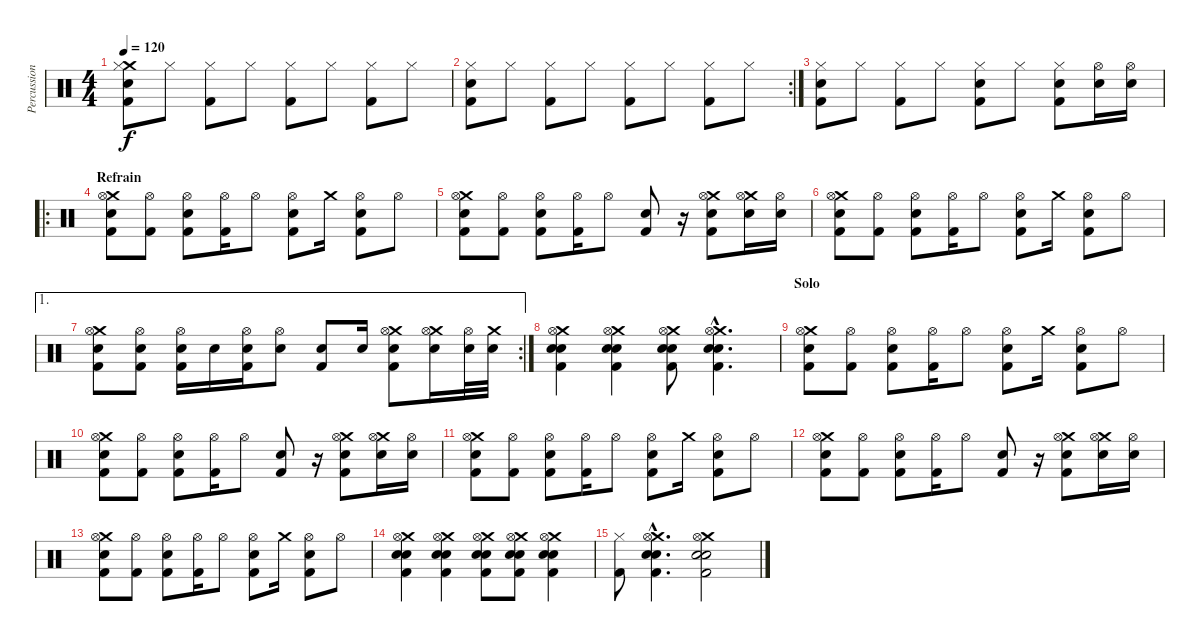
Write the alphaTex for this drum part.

\track ("Percussions" "Percussion") {instrument percussion}
\staff {score}
\articulation defaults
\ts (4 4)
\tempo 120
\clef neutral
\ks c
("Crash medium (hit)" "Hi-Hat (closed)" "Kick (hit) 2" "Electric Snare (hit)").8{dy f} "Hi-Hat (closed)".8 ("Hi-Hat (closed)" "Kick (hit) 2").8 "Hi-Hat (closed)".8 ("Hi-Hat (closed)" "Kick (hit) 2").8 "Hi-Hat (closed)".8 ("Hi-Hat (closed)" "Kick (hit) 2").8 "Hi-Hat (closed)".8 |
\rc 2
("Hi-Hat (closed)" "Kick (hit) 2" "Electric Snare (hit)").8 "Hi-Hat (closed)".8 ("Hi-Hat (closed)" "Kick (hit) 2").8 "Hi-Hat (closed)".8 ("Hi-Hat (closed)" "Kick (hit) 2").8 "Hi-Hat (closed)".8 ("Hi-Hat (closed)" "Kick (hit) 2").8 "Hi-Hat (closed)".8 |
("Hi-Hat (closed)" "Kick (hit) 2" "Electric Snare (hit)").8 "Hi-Hat (closed)".8 ("Hi-Hat (closed)" "Kick (hit) 2").8 "Hi-Hat (closed)".8 ("Hi-Hat (closed)" "Kick (hit) 2" "Electric Snare (hit)").8 "Hi-Hat (closed)".8 ("Hi-Hat (closed)" "Kick (hit) 2" "Electric Snare (hit)").8 ("Hi-Hat (open)" "Electric Snare (hit)").16 ("Hi-Hat (open)" "Electric Snare (hit)").16 |
\ro
\section ("" "Refrain")
("Crash medium (hit)" "Kick (hit) 2" "Hi-Hat (open)" "Electric Snare (hit)").8 ("Kick (hit) 2" "Hi-Hat (open)").8 ("Kick (hit) 2" "Hi-Hat (open)" "Electric Snare (hit)").8 ("Kick (hit) 2" "Hi-Hat (open)").16 "Hi-Hat (open)".8 ("Kick (hit) 2" "Hi-Hat (open)" "Electric Snare (hit)").8 "Crash medium (hit)".16 ("Kick (hit) 2" "Hi-Hat (open)" "Electric Snare (hit)").8 "Hi-Hat (open)".8 |
("Crash medium (hit)" "Kick (hit) 2" "Hi-Hat (open)" "Electric Snare (hit)").8 ("Kick (hit) 2" "Hi-Hat (open)").8 ("Kick (hit) 2" "Hi-Hat (open)" "Electric Snare (hit)").8 ("Kick (hit) 2" "Hi-Hat (open)").16 "Hi-Hat (open)".8 ("Kick (hit) 2" "Electric Snare (hit)").8 r.16 ("Crash medium (hit)" "Kick (hit) 2" "Hi-Hat (open)" "Electric Snare (hit)").8 ("Crash medium (hit)" "Hi-Hat (open)" "Electric Snare (hit)").16 ("Hi-Hat (open)" "Electric Snare (hit)").16 |
("Crash medium (hit)" "Kick (hit) 2" "Hi-Hat (open)" "Electric Snare (hit)").8 ("Kick (hit) 2" "Hi-Hat (open)").8 ("Kick (hit) 2" "Hi-Hat (open)" "Electric Snare (hit)").8 ("Kick (hit) 2" "Hi-Hat (open)").16 "Hi-Hat (open)".8 ("Kick (hit) 2" "Hi-Hat (open)" "Electric Snare (hit)").8 "Crash medium (hit)".16 ("Kick (hit) 2" "Hi-Hat (open)" "Electric Snare (hit)").8 "Hi-Hat (open)".8 |
\ae 1
\rc 2
("Crash medium (hit)" "Kick (hit) 2" "Hi-Hat (open)" "Electric Snare (hit)").8 ("Kick (hit) 2" "Hi-Hat (open)" "Electric Snare (hit)").8 ("Kick (hit) 2" "Hi-Hat (open)" "Electric Snare (hit)").16 "Electric Snare (hit)".16 ("Kick (hit) 2" "Hi-Hat (open)" "Electric Snare (hit)").16 ("Hi-Hat (open)" "Electric Snare (hit)").8 ("Kick (hit) 2" "Electric Snare (hit)").8 "Electric Snare (hit)".16 ("Crash medium (hit)" "Kick (hit) 2" "Hi-Hat (open)" "Electric Snare (hit)").8 ("Crash medium (hit)" "Hi-Hat (open)" "Electric Snare (hit)").16 ("Hi-Hat (open)" "Electric Snare (hit)").32 ("Crash medium (hit)" "Electric Snare (hit)").32 |
("Crash medium (hit)" "Kick (hit) 2" "Hi-Hat (open)" "Electric Snare (hit)" "Snare (hit) 2").4 ("Crash medium (hit)" "Kick (hit) 2" "Hi-Hat (open)" "Electric Snare (hit)" "Snare (hit) 2").4 ("Crash medium (hit)" "Kick (hit) 2" "Hi-Hat (open)" "Electric Snare (hit)" "Snare (hit) 2").8 ("Crash medium (hit)"{hac} "Kick (hit) 2"{hac} "Hi-Hat (open)"{hac} "Electric Snare (hit)"{hac} "Snare (hit) 2"{hac}).4{d} |
\section ("" "Solo")
("Crash medium (hit)" "Kick (hit) 2" "Hi-Hat (open)" "Electric Snare (hit)").8 ("Kick (hit) 2" "Hi-Hat (open)").8 ("Kick (hit) 2" "Hi-Hat (open)" "Electric Snare (hit)").8 ("Kick (hit) 2" "Hi-Hat (open)").16 "Hi-Hat (open)".8 ("Kick (hit) 2" "Hi-Hat (open)" "Electric Snare (hit)").8 "Crash medium (hit)".16 ("Kick (hit) 2" "Hi-Hat (open)" "Electric Snare (hit)").8 "Hi-Hat (open)".8 |
("Crash medium (hit)" "Kick (hit) 2" "Hi-Hat (open)" "Electric Snare (hit)").8 ("Kick (hit) 2" "Hi-Hat (open)").8 ("Kick (hit) 2" "Hi-Hat (open)" "Electric Snare (hit)").8 ("Kick (hit) 2" "Hi-Hat (open)").16 "Hi-Hat (open)".8 ("Kick (hit) 2" "Electric Snare (hit)").8 r.16 ("Crash medium (hit)" "Kick (hit) 2" "Hi-Hat (open)" "Electric Snare (hit)").8 ("Crash medium (hit)" "Hi-Hat (open)" "Electric Snare (hit)").16 ("Hi-Hat (open)" "Electric Snare (hit)").16 |
("Crash medium (hit)" "Kick (hit) 2" "Hi-Hat (open)" "Electric Snare (hit)").8 ("Kick (hit) 2" "Hi-Hat (open)").8 ("Kick (hit) 2" "Hi-Hat (open)" "Electric Snare (hit)").8 ("Kick (hit) 2" "Hi-Hat (open)").16 "Hi-Hat (open)".8 ("Kick (hit) 2" "Hi-Hat (open)" "Electric Snare (hit)").8 "Crash medium (hit)".16 ("Kick (hit) 2" "Hi-Hat (open)" "Electric Snare (hit)").8 "Hi-Hat (open)".8 |
("Crash medium (hit)" "Kick (hit) 2" "Hi-Hat (open)" "Electric Snare (hit)").8 ("Kick (hit) 2" "Hi-Hat (open)").8 ("Kick (hit) 2" "Hi-Hat (open)" "Electric Snare (hit)").8 ("Kick (hit) 2" "Hi-Hat (open)").16 "Hi-Hat (open)".8 ("Kick (hit) 2" "Electric Snare (hit)").8 r.16 ("Crash medium (hit)" "Kick (hit) 2" "Hi-Hat (open)" "Electric Snare (hit)").8 ("Crash medium (hit)" "Hi-Hat (open)" "Electric Snare (hit)").16 ("Hi-Hat (open)" "Electric Snare (hit)").16 |
("Crash medium (hit)" "Kick (hit) 2" "Hi-Hat (open)" "Electric Snare (hit)").8 ("Kick (hit) 2" "Hi-Hat (open)").8 ("Kick (hit) 2" "Hi-Hat (open)" "Electric Snare (hit)").8 ("Kick (hit) 2" "Hi-Hat (open)").16 "Hi-Hat (open)".8 ("Kick (hit) 2" "Hi-Hat (open)" "Electric Snare (hit)").8 "Crash medium (hit)".16 ("Kick (hit) 2" "Hi-Hat (open)" "Electric Snare (hit)").8 "Hi-Hat (open)".8 |
("Crash medium (hit)" "Kick (hit) 2" "Hi-Hat (open)" "Electric Snare (hit)" "Snare (hit) 2").4 ("Crash medium (hit)" "Kick (hit) 2" "Hi-Hat (open)" "Electric Snare (hit)" "Snare (hit) 2").4 ("Crash medium (hit)" "Kick (hit) 2" "Hi-Hat (open)" "Electric Snare (hit)" "Snare (hit) 2").8 ("Crash medium (hit)" "Kick (hit) 2" "Hi-Hat (open)" "Electric Snare (hit)" "Snare (hit) 2").8 ("Crash medium (hit)" "Kick (hit) 2" "Hi-Hat (open)" "Electric Snare (hit)" "Snare (hit) 2").4 |
("Hi-Hat (closed)" "Kick (hit) 2").8 ("Crash medium (hit)"{hac} "Kick (hit) 2"{hac} "Hi-Hat (open)"{hac} "Electric Snare (hit)"{hac} "Snare (hit) 2"{hac}).4{d} ("Crash medium (hit)" "Kick (hit) 2" "Hi-Hat (open)" "Electric Snare (hit)" "Snare (hit) 2").2
